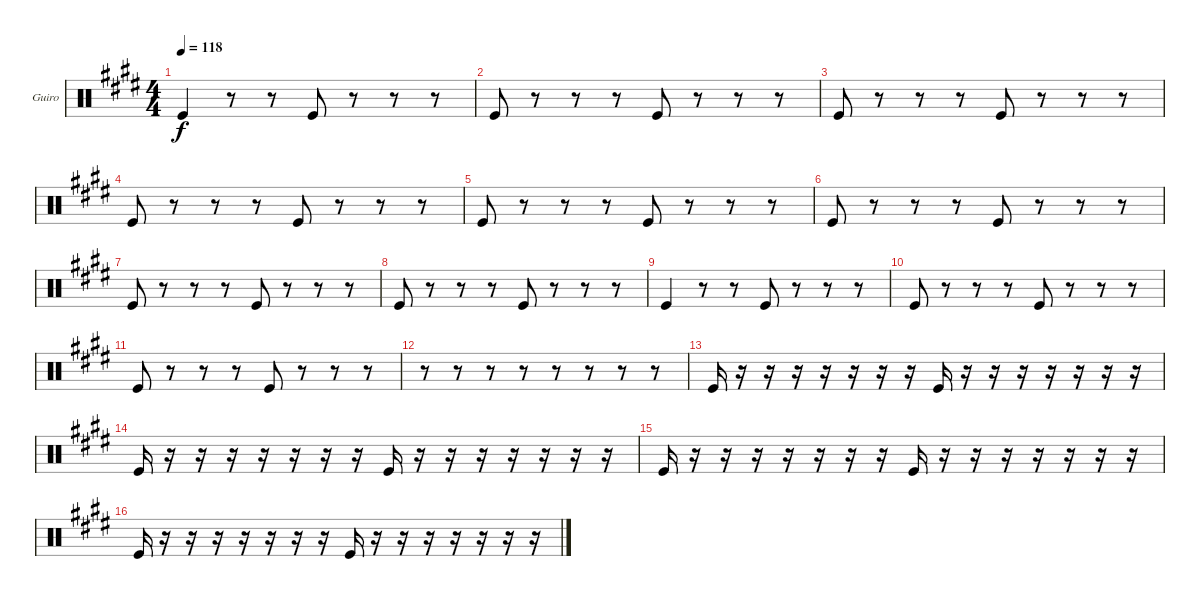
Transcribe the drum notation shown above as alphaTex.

\bracketExtendMode groupsimilarinstruments
\firstSystemTrackNameOrientation horizontal
\otherSystemsTrackNameOrientation horizontal
\track ("Guiro" "Guiro") {instrument percussion}
\staff {score}
\articulation defaults
\ts (4 4)
\tempo 118
\clef neutral
\ks e "Kick (hit)".4{dy f}
r.8 r.8 "Kick (hit)".8 r.8 r.8 r.8 |
"Kick (hit)".8 r.8 r.8 r.8 "Kick (hit)".8 r.8 r.8 r.8 |
"Kick (hit)".8 r.8 r.8 r.8 "Kick (hit)".8 r.8 r.8 r.8 |
"Kick (hit)".8 r.8 r.8 r.8 "Kick (hit)".8 r.8 r.8 r.8 |
"Kick (hit)".8 r.8 r.8 r.8 "Kick (hit)".8 r.8 r.8 r.8 |
"Kick (hit)".8 r.8 r.8 r.8 "Kick (hit)".8 r.8 r.8 r.8 |
"Kick (hit)".8 r.8 r.8 r.8 "Kick (hit)".8 r.8 r.8 r.8 |
"Kick (hit)".8 r.8 r.8 r.8 "Kick (hit)".8 r.8 r.8 r.8 |
"Kick (hit)".4 r.8 r.8 "Kick (hit)".8 r.8 r.8 r.8 |
"Kick (hit)".8 r.8 r.8 r.8 "Kick (hit)".8 r.8 r.8 r.8 |
"Kick (hit)".8 r.8 r.8 r.8 "Kick (hit)".8 r.8 r.8 r.8 |
r.8 r.8 r.8 r.8 r.8 r.8 r.8 r.8 |
"Kick (hit)".16 r.16 r.16 r.16 r.16 r.16 r.16 r.16 "Kick (hit)".16 r.16 r.16 r.16 r.16 r.16 r.16 r.16 |
"Kick (hit)".16 r.16 r.16 r.16 r.16 r.16 r.16 r.16 "Kick (hit)".16 r.16 r.16 r.16 r.16 r.16 r.16 r.16 |
"Kick (hit)".16 r.16 r.16 r.16 r.16 r.16 r.16 r.16 "Kick (hit)".16 r.16 r.16 r.16 r.16 r.16 r.16 r.16 |
"Kick (hit)".16 r.16 r.16 r.16 r.16 r.16 r.16 r.16 "Kick (hit)".16 r.16 r.16 r.16 r.16 r.16 r.16 r.16
